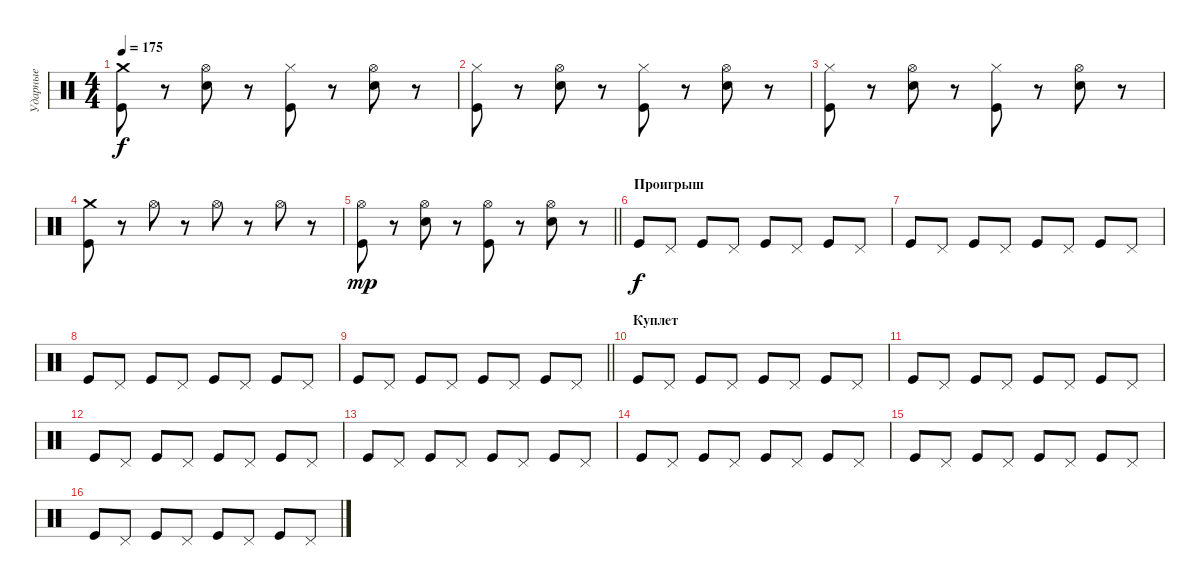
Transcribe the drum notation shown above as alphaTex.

\track ("Ударные" "Ударные") {instrument percussion}
\staff {score}
\articulation defaults
\ts (4 4)
\section ("" " ")
\tempo 175
\clef neutral
\ks c
("Crash medium (hit)" "Kick (hit)").8{dy f} r.8 ("Hi-Hat (open)" "Electric Snare (hit)").8 r.8 ("Hi-Hat (closed)" "Kick (hit)").8 r.8 ("Hi-Hat (open)" "Electric Snare (hit)").8 r.8 |
("Hi-Hat (closed)" "Kick (hit)").8 r.8 ("Hi-Hat (open)" "Electric Snare (hit)").8 r.8 ("Hi-Hat (closed)" "Kick (hit)").8 r.8 ("Hi-Hat (open)" "Electric Snare (hit)").8 r.8 |
("Hi-Hat (closed)" "Kick (hit)").8 r.8 ("Hi-Hat (open)" "Electric Snare (hit)").8 r.8 ("Hi-Hat (closed)" "Kick (hit)").8 r.8 ("Hi-Hat (open)" "Electric Snare (hit)").8 r.8 |
("Crash medium (hit)" "Kick (hit)").8 r.8 "Hi-Hat (open)".8 r.8 "Hi-Hat (open)".8 r.8 "Hi-Hat (open)".8 r.8 |
\barLineRight lightlight
("Hi-Hat (open)" "Kick (hit)").8{dy mp} r.8 ("Hi-Hat (open)" "Electric Snare (hit)").8 r.8 ("Hi-Hat (open)" "Kick (hit)").8 r.8 ("Hi-Hat (open)" "Electric Snare (hit)").8 r.8 |
\section ("" "Проигрыш")
"Kick (hit)".8{dy f} "Pedal Hi-Hat (hit)".8 "Kick (hit)".8 "Pedal Hi-Hat (hit)".8 "Kick (hit)".8 "Pedal Hi-Hat (hit)".8 "Kick (hit)".8 "Pedal Hi-Hat (hit)".8 |
"Kick (hit)".8 "Pedal Hi-Hat (hit)".8 "Kick (hit)".8 "Pedal Hi-Hat (hit)".8 "Kick (hit)".8 "Pedal Hi-Hat (hit)".8 "Kick (hit)".8 "Pedal Hi-Hat (hit)".8 |
"Kick (hit)".8 "Pedal Hi-Hat (hit)".8 "Kick (hit)".8 "Pedal Hi-Hat (hit)".8 "Kick (hit)".8 "Pedal Hi-Hat (hit)".8 "Kick (hit)".8 "Pedal Hi-Hat (hit)".8 |
\barLineRight lightlight "Kick (hit)".8 "Pedal Hi-Hat (hit)".8 "Kick (hit)".8 "Pedal Hi-Hat (hit)".8 "Kick (hit)".8 "Pedal Hi-Hat (hit)".8 "Kick (hit)".8 "Pedal Hi-Hat (hit)".8
|
\section ("" "Куплет")
"Kick (hit)".8 "Pedal Hi-Hat (hit)".8 "Kick (hit)".8 "Pedal Hi-Hat (hit)".8 "Kick (hit)".8 "Pedal Hi-Hat (hit)".8 "Kick (hit)".8 "Pedal Hi-Hat (hit)".8 |
"Kick (hit)".8 "Pedal Hi-Hat (hit)".8 "Kick (hit)".8 "Pedal Hi-Hat (hit)".8 "Kick (hit)".8 "Pedal Hi-Hat (hit)".8 "Kick (hit)".8 "Pedal Hi-Hat (hit)".8 |
"Kick (hit)".8 "Pedal Hi-Hat (hit)".8 "Kick (hit)".8 "Pedal Hi-Hat (hit)".8 "Kick (hit)".8 "Pedal Hi-Hat (hit)".8 "Kick (hit)".8 "Pedal Hi-Hat (hit)".8 |
"Kick (hit)".8 "Pedal Hi-Hat (hit)".8 "Kick (hit)".8 "Pedal Hi-Hat (hit)".8 "Kick (hit)".8 "Pedal Hi-Hat (hit)".8 "Kick (hit)".8 "Pedal Hi-Hat (hit)".8 |
"Kick (hit)".8 "Pedal Hi-Hat (hit)".8 "Kick (hit)".8 "Pedal Hi-Hat (hit)".8 "Kick (hit)".8 "Pedal Hi-Hat (hit)".8 "Kick (hit)".8 "Pedal Hi-Hat (hit)".8 |
"Kick (hit)".8 "Pedal Hi-Hat (hit)".8 "Kick (hit)".8 "Pedal Hi-Hat (hit)".8 "Kick (hit)".8 "Pedal Hi-Hat (hit)".8 "Kick (hit)".8 "Pedal Hi-Hat (hit)".8 |
"Kick (hit)".8 "Pedal Hi-Hat (hit)".8 "Kick (hit)".8 "Pedal Hi-Hat (hit)".8 "Kick (hit)".8 "Pedal Hi-Hat (hit)".8 "Kick (hit)".8 "Pedal Hi-Hat (hit)".8
